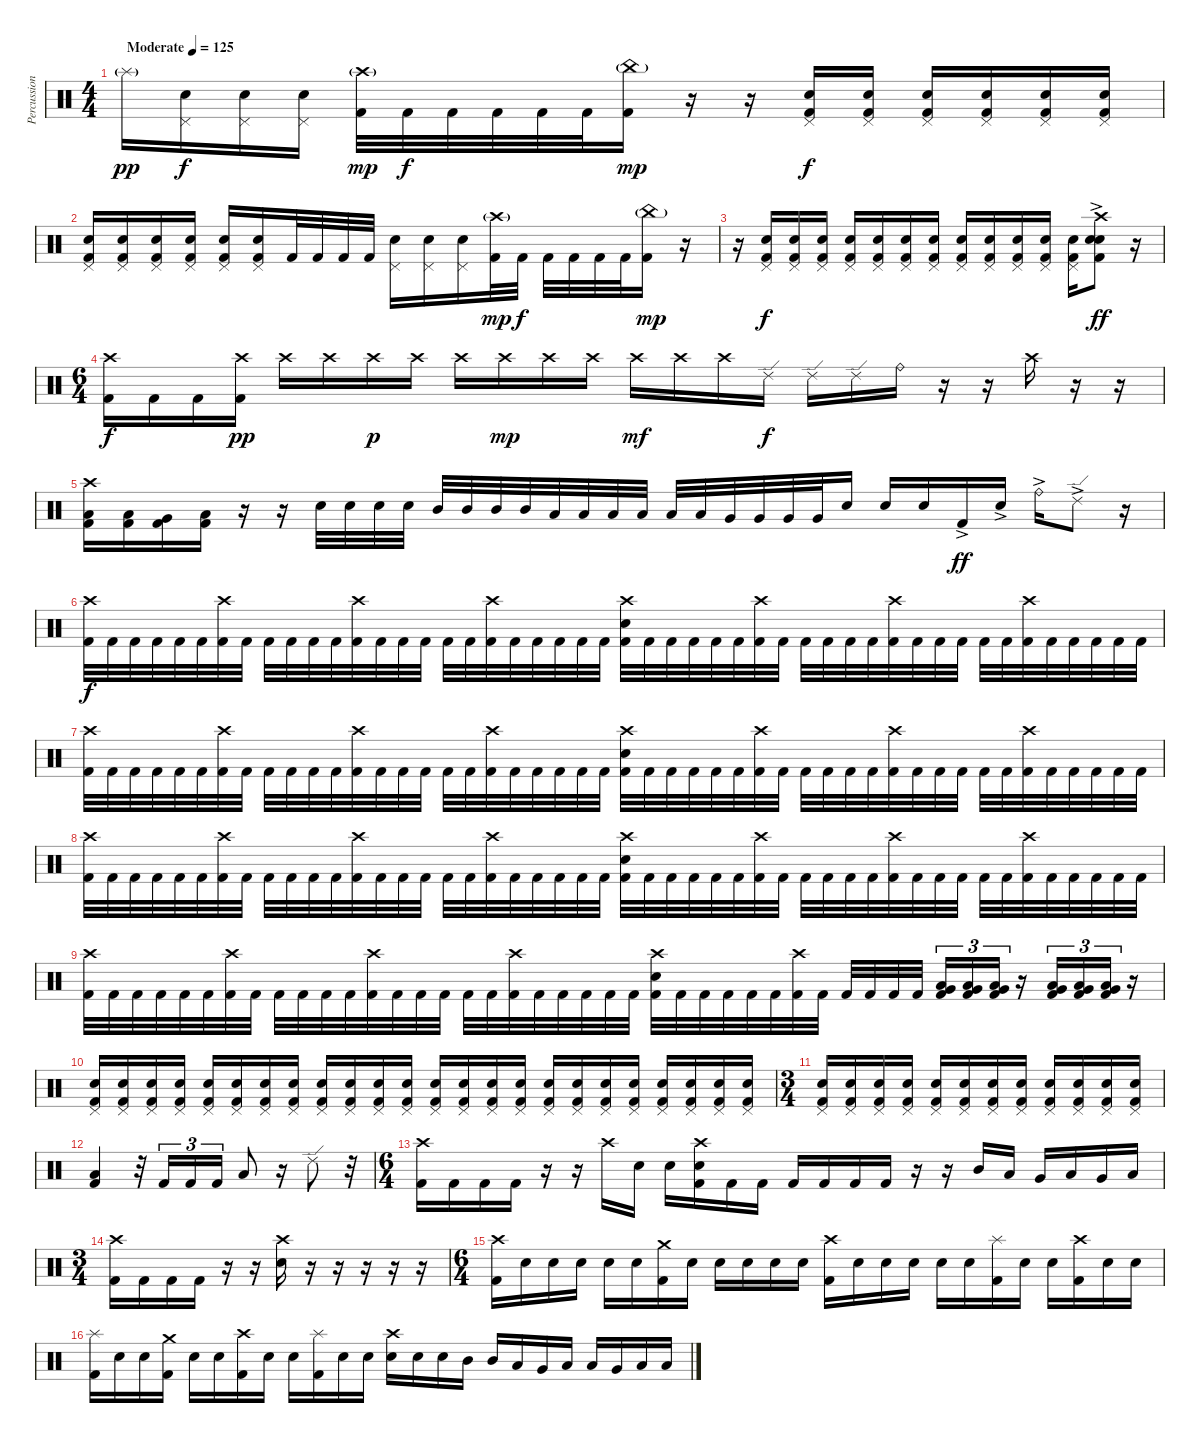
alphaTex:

\track ("Percussion" "Percussion") {instrument percussion}
\staff {score}
\articulation defaults
\ts (4 4)
\tempo (125 "Moderate")
\clef neutral
\ks c "Splash (hit)"{g}.16{dy pp}
("Pedal Hi-Hat (hit)" "Snare (hit) 2").16{dy f} ("Pedal Hi-Hat (hit)" "Snare (hit) 2").16 ("Pedal Hi-Hat (hit)" "Snare (hit) 2").16 ("Crash high (hit)"{g} "Kick (hit) 2").32{dy mp} "Kick (hit) 2".32{dy f} "Kick (hit) 2".32 "Kick (hit) 2".32 "Kick (hit) 2".32 "Kick (hit) 2".32 ("China (hit)"{g} "Kick (hit) 2").16{dy mp} r.16 r.16 ("Pedal Hi-Hat (hit)" "Snare (hit) 2" "Kick (hit) 2").16{dy f} ("Pedal Hi-Hat (hit)" "Snare (hit) 2" "Kick (hit) 2").16 ("Pedal Hi-Hat (hit)" "Snare (hit) 2" "Kick (hit) 2").16 ("Pedal Hi-Hat (hit)" "Snare (hit) 2" "Kick (hit) 2").16 ("Pedal Hi-Hat (hit)" "Snare (hit) 2" "Kick (hit) 2").16 ("Pedal Hi-Hat (hit)" "Snare (hit) 2" "Kick (hit) 2").16 |
("Pedal Hi-Hat (hit)" "Snare (hit) 2" "Kick (hit) 2").16 ("Pedal Hi-Hat (hit)" "Snare (hit) 2" "Kick (hit) 2").16 ("Pedal Hi-Hat (hit)" "Snare (hit) 2" "Kick (hit) 2").16 ("Pedal Hi-Hat (hit)" "Snare (hit) 2" "Kick (hit) 2").16 ("Pedal Hi-Hat (hit)" "Snare (hit) 2" "Kick (hit) 2").16 ("Pedal Hi-Hat (hit)" "Snare (hit) 2" "Kick (hit) 2").16 "Kick (hit) 2".32 "Kick (hit) 2".32 "Kick (hit) 2".32 "Kick (hit) 2".32 ("Pedal Hi-Hat (hit)" "Snare (hit) 2").16 ("Pedal Hi-Hat (hit)" "Snare (hit) 2").16 ("Pedal Hi-Hat (hit)" "Snare (hit) 2").16 ("Crash high (hit)"{g} "Kick (hit) 2").32{dy mp} "Kick (hit) 2".32{dy f} "Kick (hit) 2".32 "Kick (hit) 2".32 "Kick (hit) 2".32 "Kick (hit) 2".32 ("China (hit)"{g} "Kick (hit) 2").16{dy mp} r.16 |
r.16 ("Pedal Hi-Hat (hit)" "Snare (hit) 2" "Kick (hit) 2").16{dy f} ("Pedal Hi-Hat (hit)" "Snare (hit) 2" "Kick (hit) 2").16 ("Pedal Hi-Hat (hit)" "Snare (hit) 2" "Kick (hit) 2").16 ("Pedal Hi-Hat (hit)" "Snare (hit) 2" "Kick (hit) 2").16 ("Pedal Hi-Hat (hit)" "Snare (hit) 2" "Kick (hit) 2").16 ("Pedal Hi-Hat (hit)" "Snare (hit) 2" "Kick (hit) 2").16 ("Pedal Hi-Hat (hit)" "Snare (hit) 2" "Kick (hit) 2").16 ("Pedal Hi-Hat (hit)" "Snare (hit) 2" "Kick (hit) 2").16 ("Pedal Hi-Hat (hit)" "Snare (hit) 2" "Kick (hit) 2").16 ("Pedal Hi-Hat (hit)" "Snare (hit) 2" "Kick (hit) 2").16 ("Pedal Hi-Hat (hit)" "Snare (hit) 2" "Kick (hit) 2").16 ("Pedal Hi-Hat (hit)" "Snare (hit) 2" "Kick (hit) 2").16 ("Crash high (hit)" "Electric Snare (hit)"{ac} "Electric Snare (hit)"{ac} "Kick (hit) 2"{ac}).8{dy ff} r.16 |
\ts (6 4)
("Crash high (hit)" "Kick (hit) 2").16{dy f} "Kick (hit) 2".16 "Kick (hit) 2".16 ("Crash high (hit)" "Kick (hit) 2").16{dy pp} "Crash high (hit)".16 "Crash high (hit)".16 "Crash high (hit)".16{dy p} "Crash high (hit)".16 "Crash high (hit)".16 "Crash high (hit)".16{dy mp} "Crash high (hit)".16 "Crash high (hit)".16 "Crash high (hit)".16{dy mf} "Crash high (hit)".16 "Crash high (hit)".16 "Ride (edge) 2".16{dy f} "Ride (edge) 2".16 "Ride (edge) 2".16 "Ride (bell)".16 r.16 r.16 "Crash high (hit)".16 r.16 r.16 |
("Crash high (hit)" "Low Tom (hit)" "Kick (hit) 2").16 ("Low Tom (hit)" "Kick (hit) 2").16 ("Very Low Tom (hit)" "Kick (hit) 2").16 ("Low Floor Tom (hit)" "Kick (hit) 2").16 r.16 r.16 "Electric Snare (hit)".32 "Electric Snare (hit)".32 "Electric Snare (hit)".32 "Electric Snare (hit)".32 "Mid Tom (hit)".32 "Mid Tom (hit)".32 "Mid Tom (hit)".32 "Mid Tom (hit)".32 "Low Tom (hit)".32 "Low Tom (hit)".32 "Low Tom (hit)".32 "Low Tom (hit)".32 "Low Tom (hit)".32 "Low Tom (hit)".32 "Very Low Tom (hit)".32 "Very Low Tom (hit)".32 "Very Low Tom (hit)".32 "Very Low Tom (hit)".32 "Electric Snare (hit)".16 "Electric Snare (hit)".16 "Electric Snare (hit)".16 "Kick (hit) 2"{ac}.16{dy ff} "Electric Snare (hit)"{ac}.16 "Ride (bell)"{ac}.16 "Ride (edge) 2"{ac}.8 r.16 |
("Crash high (hit)" "Kick (hit) 2").32{dy f} "Kick (hit) 2".32 "Kick (hit) 2".32 "Kick (hit) 2".32 "Kick (hit) 2".32 "Kick (hit) 2".32 ("Crash high (hit)" "Kick (hit) 2").32 "Kick (hit) 2".32 "Kick (hit) 2".32 "Kick (hit) 2".32 "Kick (hit) 2".32 "Kick (hit) 2".32 ("Crash high (hit)" "Kick (hit) 2").32 "Kick (hit) 2".32 "Kick (hit) 2".32 "Kick (hit) 2".32 "Kick (hit) 2".32 "Kick (hit) 2".32 ("Crash high (hit)" "Kick (hit) 2").32 "Kick (hit) 2".32 "Kick (hit) 2".32 "Kick (hit) 2".32 "Kick (hit) 2".32 "Kick (hit) 2".32 ("Crash high (hit)" "Electric Snare (hit)" "Kick (hit) 2").32 "Kick (hit) 2".32 "Kick (hit) 2".32 "Kick (hit) 2".32 "Kick (hit) 2".32 "Kick (hit) 2".32 ("Crash high (hit)" "Kick (hit) 2").32 "Kick (hit) 2".32 "Kick (hit) 2".32 "Kick (hit) 2".32 "Kick (hit) 2".32 "Kick (hit) 2".32 ("Crash high (hit)" "Kick (hit) 2").32 "Kick (hit) 2".32 "Kick (hit) 2".32 "Kick (hit) 2".32 "Kick (hit) 2".32 "Kick (hit) 2".32 ("Crash high (hit)" "Kick (hit) 2").32 "Kick (hit) 2".32 "Kick (hit) 2".32 "Kick (hit) 2".32 "Kick (hit) 2".32 "Kick (hit) 2".32 |
("Crash high (hit)" "Kick (hit) 2").32 "Kick (hit) 2".32 "Kick (hit) 2".32 "Kick (hit) 2".32 "Kick (hit) 2".32 "Kick (hit) 2".32 ("Crash high (hit)" "Kick (hit) 2").32 "Kick (hit) 2".32 "Kick (hit) 2".32 "Kick (hit) 2".32 "Kick (hit) 2".32 "Kick (hit) 2".32 ("Crash high (hit)" "Kick (hit) 2").32 "Kick (hit) 2".32 "Kick (hit) 2".32 "Kick (hit) 2".32 "Kick (hit) 2".32 "Kick (hit) 2".32 ("Crash high (hit)" "Kick (hit) 2").32 "Kick (hit) 2".32 "Kick (hit) 2".32 "Kick (hit) 2".32 "Kick (hit) 2".32 "Kick (hit) 2".32 ("Crash high (hit)" "Electric Snare (hit)" "Kick (hit) 2").32 "Kick (hit) 2".32 "Kick (hit) 2".32 "Kick (hit) 2".32 "Kick (hit) 2".32 "Kick (hit) 2".32 ("Crash high (hit)" "Kick (hit) 2").32 "Kick (hit) 2".32 "Kick (hit) 2".32 "Kick (hit) 2".32 "Kick (hit) 2".32 "Kick (hit) 2".32 ("Crash high (hit)" "Kick (hit) 2").32 "Kick (hit) 2".32 "Kick (hit) 2".32 "Kick (hit) 2".32 "Kick (hit) 2".32 "Kick (hit) 2".32 ("Crash high (hit)" "Kick (hit) 2").32 "Kick (hit) 2".32 "Kick (hit) 2".32 "Kick (hit) 2".32 "Kick (hit) 2".32 "Kick (hit) 2".32 |
("Crash high (hit)" "Kick (hit) 2").32 "Kick (hit) 2".32 "Kick (hit) 2".32 "Kick (hit) 2".32 "Kick (hit) 2".32 "Kick (hit) 2".32 ("Crash high (hit)" "Kick (hit) 2").32 "Kick (hit) 2".32 "Kick (hit) 2".32 "Kick (hit) 2".32 "Kick (hit) 2".32 "Kick (hit) 2".32 ("Crash high (hit)" "Kick (hit) 2").32 "Kick (hit) 2".32 "Kick (hit) 2".32 "Kick (hit) 2".32 "Kick (hit) 2".32 "Kick (hit) 2".32 ("Crash high (hit)" "Kick (hit) 2").32 "Kick (hit) 2".32 "Kick (hit) 2".32 "Kick (hit) 2".32 "Kick (hit) 2".32 "Kick (hit) 2".32 ("Crash high (hit)" "Electric Snare (hit)" "Kick (hit) 2").32 "Kick (hit) 2".32 "Kick (hit) 2".32 "Kick (hit) 2".32 "Kick (hit) 2".32 "Kick (hit) 2".32 ("Crash high (hit)" "Kick (hit) 2").32 "Kick (hit) 2".32 "Kick (hit) 2".32 "Kick (hit) 2".32 "Kick (hit) 2".32 "Kick (hit) 2".32 ("Crash high (hit)" "Kick (hit) 2").32 "Kick (hit) 2".32 "Kick (hit) 2".32 "Kick (hit) 2".32 "Kick (hit) 2".32 "Kick (hit) 2".32 ("Crash high (hit)" "Kick (hit) 2").32 "Kick (hit) 2".32 "Kick (hit) 2".32 "Kick (hit) 2".32 "Kick (hit) 2".32 "Kick (hit) 2".32 |
("Crash high (hit)" "Kick (hit) 2").32 "Kick (hit) 2".32 "Kick (hit) 2".32 "Kick (hit) 2".32 "Kick (hit) 2".32 "Kick (hit) 2".32 ("Crash high (hit)" "Kick (hit) 2").32 "Kick (hit) 2".32 "Kick (hit) 2".32 "Kick (hit) 2".32 "Kick (hit) 2".32 "Kick (hit) 2".32 ("Crash high (hit)" "Kick (hit) 2").32 "Kick (hit) 2".32 "Kick (hit) 2".32 "Kick (hit) 2".32 "Kick (hit) 2".32 "Kick (hit) 2".32 ("Crash high (hit)" "Kick (hit) 2").32 "Kick (hit) 2".32 "Kick (hit) 2".32 "Kick (hit) 2".32 "Kick (hit) 2".32 "Kick (hit) 2".32 ("Crash high (hit)" "Electric Snare (hit)" "Kick (hit) 2").32 "Kick (hit) 2".32 "Kick (hit) 2".32 "Kick (hit) 2".32 "Kick (hit) 2".32 "Kick (hit) 2".32 ("Crash high (hit)" "Kick (hit) 2").32 "Kick (hit) 2".32 "Kick (hit) 2".32 "Kick (hit) 2".32 "Kick (hit) 2".32 "Kick (hit) 2".32{beam splitsecondary} ("Very Low Tom (hit)" "Low Floor Tom (hit)" "Kick (hit) 2").16{tu (3 2)} ("Very Low Tom (hit)" "Low Floor Tom (hit)" "Kick (hit) 2").16{tu (3 2)} ("Very Low Tom (hit)" "Low Floor Tom (hit)" "Kick (hit) 2").16{tu (3 2)} r.16 ("Very Low Tom (hit)" "Low Floor Tom (hit)" "Kick (hit) 2").16{tu (3 2)} ("Very Low Tom (hit)" "Low Floor Tom (hit)" "Kick (hit) 2").16{tu (3 2)} ("Very Low Tom (hit)" "Low Floor Tom (hit)" "Kick (hit) 2").16{tu (3 2)} r.16 |
("Pedal Hi-Hat (hit)" "Electric Snare (hit)" "Kick (hit) 2").16 ("Pedal Hi-Hat (hit)" "Electric Snare (hit)" "Kick (hit) 2").16 ("Pedal Hi-Hat (hit)" "Electric Snare (hit)" "Kick (hit) 2").16 ("Pedal Hi-Hat (hit)" "Electric Snare (hit)" "Kick (hit) 2").16 ("Pedal Hi-Hat (hit)" "Electric Snare (hit)" "Kick (hit) 2").16 ("Pedal Hi-Hat (hit)" "Electric Snare (hit)" "Kick (hit) 2").16 ("Pedal Hi-Hat (hit)" "Electric Snare (hit)" "Kick (hit) 2").16 ("Pedal Hi-Hat (hit)" "Electric Snare (hit)" "Kick (hit) 2").16 ("Pedal Hi-Hat (hit)" "Electric Snare (hit)" "Kick (hit) 2").16 ("Pedal Hi-Hat (hit)" "Electric Snare (hit)" "Kick (hit) 2").16 ("Pedal Hi-Hat (hit)" "Electric Snare (hit)" "Kick (hit) 2").16 ("Pedal Hi-Hat (hit)" "Electric Snare (hit)" "Kick (hit) 2").16 ("Pedal Hi-Hat (hit)" "Electric Snare (hit)" "Kick (hit) 2").16 ("Pedal Hi-Hat (hit)" "Electric Snare (hit)" "Kick (hit) 2").16 ("Pedal Hi-Hat (hit)" "Electric Snare (hit)" "Kick (hit) 2").16 ("Pedal Hi-Hat (hit)" "Electric Snare (hit)" "Kick (hit) 2").16 ("Pedal Hi-Hat (hit)" "Electric Snare (hit)" "Kick (hit) 2").16 ("Pedal Hi-Hat (hit)" "Electric Snare (hit)" "Kick (hit) 2").16 ("Pedal Hi-Hat (hit)" "Electric Snare (hit)" "Kick (hit) 2").16 ("Pedal Hi-Hat (hit)" "Electric Snare (hit)" "Kick (hit) 2").16 ("Pedal Hi-Hat (hit)" "Electric Snare (hit)" "Kick (hit) 2").16 ("Pedal Hi-Hat (hit)" "Electric Snare (hit)" "Kick (hit) 2").16 ("Pedal Hi-Hat (hit)" "Electric Snare (hit)" "Kick (hit) 2").16 ("Pedal Hi-Hat (hit)" "Electric Snare (hit)" "Kick (hit) 2").16 |
\ts (3 4)
("Pedal Hi-Hat (hit)" "Electric Snare (hit)" "Kick (hit) 2").16 ("Pedal Hi-Hat (hit)" "Electric Snare (hit)" "Kick (hit) 2").16 ("Pedal Hi-Hat (hit)" "Electric Snare (hit)" "Kick (hit) 2").16 ("Pedal Hi-Hat (hit)" "Electric Snare (hit)" "Kick (hit) 2").16 ("Pedal Hi-Hat (hit)" "Electric Snare (hit)" "Kick (hit) 2").16 ("Pedal Hi-Hat (hit)" "Electric Snare (hit)" "Kick (hit) 2").16 ("Pedal Hi-Hat (hit)" "Electric Snare (hit)" "Kick (hit) 2").16 ("Pedal Hi-Hat (hit)" "Electric Snare (hit)" "Kick (hit) 2").16 ("Pedal Hi-Hat (hit)" "Electric Snare (hit)" "Kick (hit) 2").16 ("Pedal Hi-Hat (hit)" "Electric Snare (hit)" "Kick (hit) 2").16 ("Pedal Hi-Hat (hit)" "Electric Snare (hit)" "Kick (hit) 2").16 ("Pedal Hi-Hat (hit)" "Electric Snare (hit)" "Kick (hit) 2").16 |
("Low Floor Tom (hit)" "Kick (hit) 2").4 r.32 "Kick (hit) 2".16{tu (3 2)} "Kick (hit) 2".16{tu (3 2)} "Kick (hit) 2".16{tu (3 2)} "Low Floor Tom (hit)".8 r.16 "Ride (edge) 2".8 r.32 |
\ts (6 4)
("Crash high (hit)" "Kick (hit) 2").16 "Kick (hit) 2".16 "Kick (hit) 2".16 "Kick (hit) 2".16 r.16 r.16 "Crash high (hit)".16 "Electric Snare (hit)".16 "Electric Snare (hit)".16 ("Crash high (hit)" "Electric Snare (hit)" "Kick (hit) 2").16 "Kick (hit) 2".16 "Kick (hit) 2".16 "Kick (hit) 2".16 "Kick (hit) 2".16 "Kick (hit) 2".16 "Kick (hit) 2".16 r.16 r.16 "Mid Tom (hit)".16 "Low Tom (hit)".16 "Very Low Tom (hit)".16 "Low Tom (hit)".16 "Very Low Tom (hit)".16 "Low Floor Tom (hit)".16 |
\ts (3 4)
("Crash high (hit)" "Kick (hit) 2").16 "Kick (hit) 2".16 "Kick (hit) 2".16 "Kick (hit) 2".16 r.16 r.16 ("Crash high (hit)" "Electric Snare (hit)").16 r.16 r.16 r.16 r.16 r.16 |
\ts (6 4)
("Crash high (hit)" "Kick (hit) 2").16 "Electric Snare (hit)".16 "Electric Snare (hit)".16 "Electric Snare (hit)".16 "Electric Snare (hit)".16 "Electric Snare (hit)".16 ("Crash medium (hit)" "Kick (hit) 2").16 "Electric Snare (hit)".16 "Electric Snare (hit)".16 "Electric Snare (hit)".16 "Electric Snare (hit)".16 "Electric Snare (hit)".16 ("Crash high (hit)" "Kick (hit) 2").16 "Electric Snare (hit)".16 "Electric Snare (hit)".16 "Electric Snare (hit)".16 "Electric Snare (hit)".16 "Electric Snare (hit)".16 ("Splash (hit)" "Kick (hit) 2").16 "Electric Snare (hit)".16 "Electric Snare (hit)".16 ("Crash high (hit)" "Kick (hit) 2").16 "Electric Snare (hit)".16 "Electric Snare (hit)".16 |
("Splash (hit)" "Kick (hit) 2").16 "Electric Snare (hit)".16 "Electric Snare (hit)".16 ("Crash medium (hit)" "Kick (hit) 2").16 "Electric Snare (hit)".16 "Electric Snare (hit)".16 ("Crash high (hit)" "Kick (hit) 2").16 "Electric Snare (hit)".16 "Electric Snare (hit)".16 ("Splash (hit)" "Kick (hit) 2").16 "Electric Snare (hit)".16 "Electric Snare (hit)".16 ("Crash high (hit)" "Electric Snare (hit)").16 "Electric Snare (hit)".16 "Electric Snare (hit)".16 "Mid Tom (hit)".16 "Mid Tom (hit)".16 "Low Tom (hit)".16 "Very Low Tom (hit)".16 "Low Tom (hit)".16 "Low Tom (hit)".16 "Very Low Tom (hit)".16 "Low Floor Tom (hit)".16 "Low Floor Tom (hit)".16
